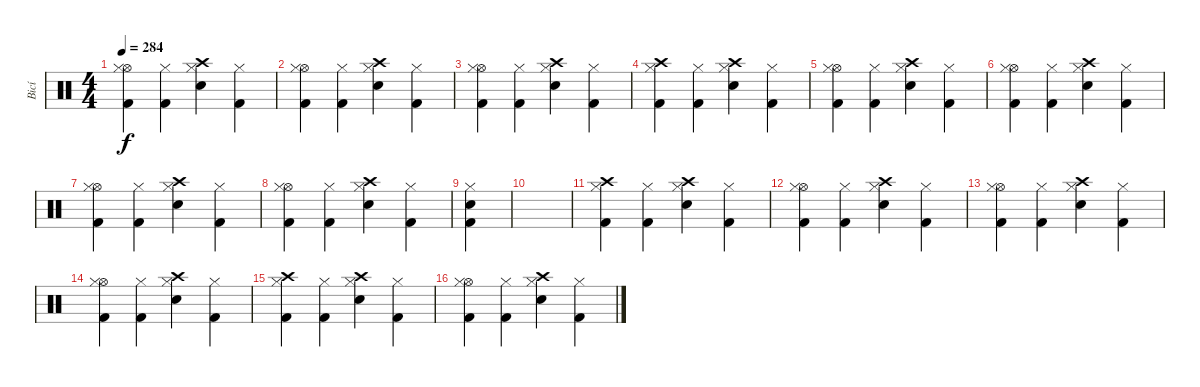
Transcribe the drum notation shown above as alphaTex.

\track ("Bicí" "Bicí") {instrument percussion}
\staff {score}
\articulation defaults
\ts (4 4)
\tempo 284
\clef neutral
\ks c
("Hi-Hat (open)" "Hi-Hat (closed)" "Kick (hit) 2").4{dy f} ("Hi-Hat (closed)" "Kick (hit) 2").4 ("Crash high (hit)" "Hi-Hat (closed)" "Electric Snare (hit)").4 ("Hi-Hat (closed)" "Kick (hit) 2").4 |
("Hi-Hat (open)" "Hi-Hat (closed)" "Kick (hit) 2").4 ("Hi-Hat (closed)" "Kick (hit) 2").4 ("Crash high (hit)" "Hi-Hat (closed)" "Electric Snare (hit)").4 ("Hi-Hat (closed)" "Kick (hit) 2").4 |
("Hi-Hat (open)" "Hi-Hat (closed)" "Kick (hit) 2").4 ("Hi-Hat (closed)" "Kick (hit) 2").4 ("Crash high (hit)" "Hi-Hat (closed)" "Electric Snare (hit)").4 ("Hi-Hat (closed)" "Kick (hit) 2").4 |
("Crash high (hit)" "Hi-Hat (closed)" "Kick (hit) 2").4 ("Hi-Hat (closed)" "Kick (hit) 2").4 ("Crash high (hit)" "Hi-Hat (closed)" "Electric Snare (hit)").4 ("Hi-Hat (closed)" "Kick (hit) 2").4 |
("Hi-Hat (open)" "Hi-Hat (closed)" "Kick (hit) 2").4 ("Hi-Hat (closed)" "Kick (hit) 2").4 ("Crash high (hit)" "Hi-Hat (closed)" "Electric Snare (hit)").4 ("Hi-Hat (closed)" "Kick (hit) 2").4 |
("Hi-Hat (open)" "Hi-Hat (closed)" "Kick (hit) 2").4 ("Hi-Hat (closed)" "Kick (hit) 2").4 ("Crash high (hit)" "Hi-Hat (closed)" "Electric Snare (hit)").4 ("Hi-Hat (closed)" "Kick (hit) 2").4 |
("Hi-Hat (open)" "Hi-Hat (closed)" "Kick (hit) 2").4 ("Hi-Hat (closed)" "Kick (hit) 2").4 ("Crash high (hit)" "Hi-Hat (closed)" "Electric Snare (hit)").4 ("Hi-Hat (closed)" "Kick (hit) 2").4 |
("Hi-Hat (open)" "Hi-Hat (closed)" "Kick (hit) 2").4 ("Hi-Hat (closed)" "Kick (hit) 2").4 ("Crash high (hit)" "Hi-Hat (closed)" "Electric Snare (hit)").4 ("Hi-Hat (closed)" "Kick (hit) 2").4 |
("Hi-Hat (closed)" "Electric Snare (hit)" "Kick (hit) 2").4 |
|
("Crash high (hit)" "Hi-Hat (closed)" "Kick (hit) 2").4 ("Hi-Hat (closed)" "Kick (hit) 2").4 ("Crash high (hit)" "Hi-Hat (closed)" "Electric Snare (hit)").4 ("Hi-Hat (closed)" "Kick (hit) 2").4 |
("Hi-Hat (open)" "Hi-Hat (closed)" "Kick (hit) 2").4 ("Hi-Hat (closed)" "Kick (hit) 2").4 ("Crash high (hit)" "Hi-Hat (closed)" "Electric Snare (hit)").4 ("Hi-Hat (closed)" "Kick (hit) 2").4 |
("Hi-Hat (open)" "Hi-Hat (closed)" "Kick (hit) 2").4 ("Hi-Hat (closed)" "Kick (hit) 2").4 ("Crash high (hit)" "Hi-Hat (closed)" "Electric Snare (hit)").4 ("Hi-Hat (closed)" "Kick (hit) 2").4 |
("Hi-Hat (open)" "Hi-Hat (closed)" "Kick (hit) 2").4 ("Hi-Hat (closed)" "Kick (hit) 2").4 ("Crash high (hit)" "Hi-Hat (closed)" "Electric Snare (hit)").4 ("Hi-Hat (closed)" "Kick (hit) 2").4 |
("Crash high (hit)" "Hi-Hat (closed)" "Kick (hit) 2").4 ("Hi-Hat (closed)" "Kick (hit) 2").4 ("Crash high (hit)" "Hi-Hat (closed)" "Electric Snare (hit)").4 ("Hi-Hat (closed)" "Kick (hit) 2").4 |
("Hi-Hat (open)" "Hi-Hat (closed)" "Kick (hit) 2").4 ("Hi-Hat (closed)" "Kick (hit) 2").4 ("Crash high (hit)" "Hi-Hat (closed)" "Electric Snare (hit)").4 ("Hi-Hat (closed)" "Kick (hit) 2").4
